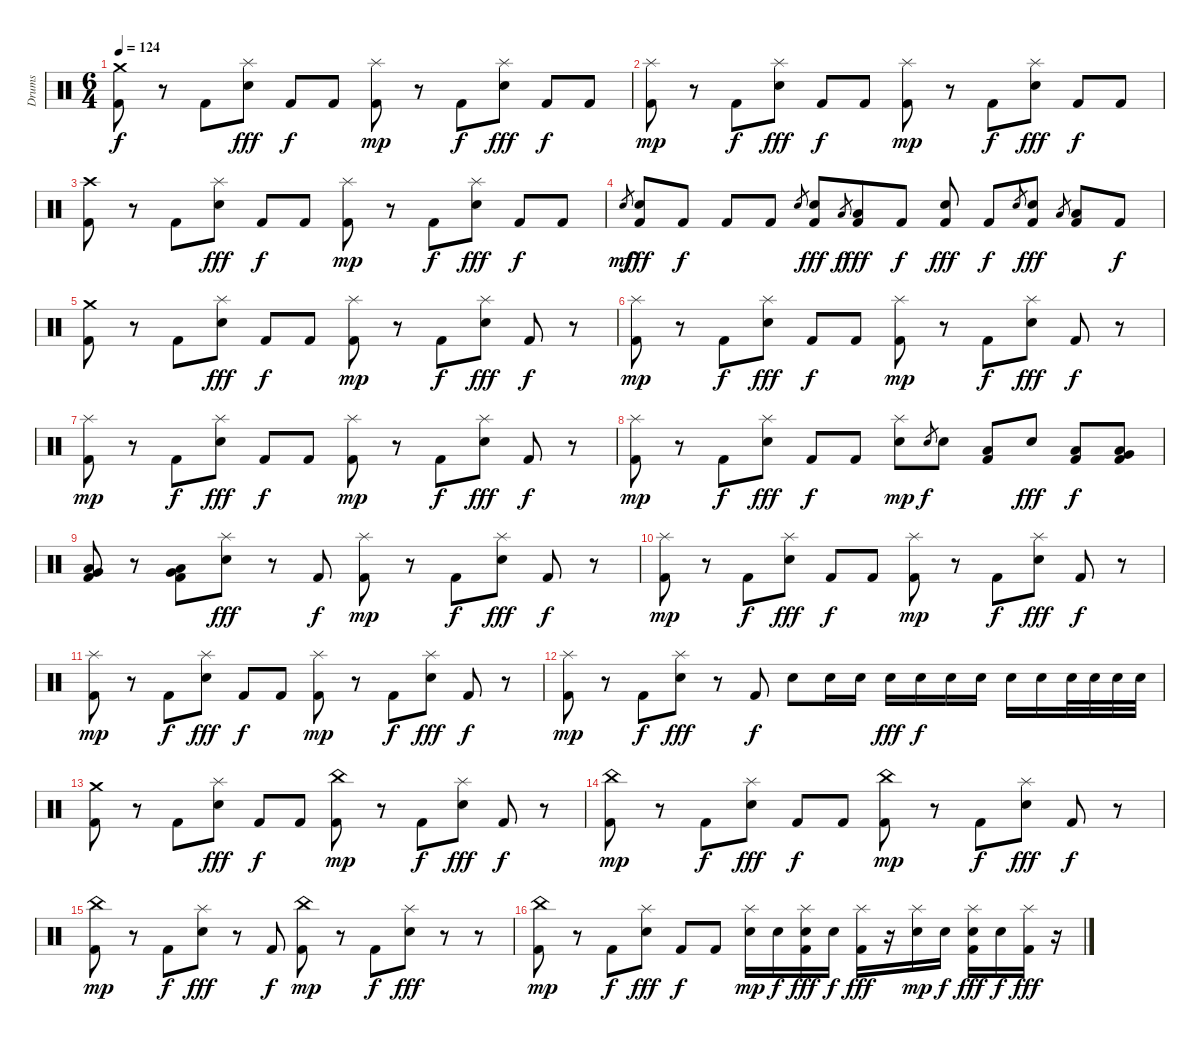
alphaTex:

\track ("Drums" "Drums") {instrument percussion}
\staff {score}
\articulation defaults
\ts (6 4)
\tempo 124
\clef neutral
\ks c
("Crash medium (hit)" "Kick (hit) 2").8{dy f} r.8 "Kick (hit) 2".8 ("Splash (hit)" "Electric Snare (hit)").8{dy fff} "Kick (hit) 2".8{dy f} "Kick (hit) 2".8 ("Splash (hit)" "Kick (hit) 2").8{dy mp} r.8 "Kick (hit) 2".8{dy f} ("Splash (hit)" "Electric Snare (hit)").8{dy fff} "Kick (hit) 2".8{dy f} "Kick (hit) 2".8 |
("Splash (hit)" "Kick (hit) 2").8{dy mp} r.8 "Kick (hit) 2".8{dy f} ("Splash (hit)" "Electric Snare (hit)").8{dy fff} "Kick (hit) 2".8{dy f} "Kick (hit) 2".8 ("Splash (hit)" "Kick (hit) 2").8{dy mp} r.8 "Kick (hit) 2".8{dy f} ("Splash (hit)" "Electric Snare (hit)").8{dy fff} "Kick (hit) 2".8{dy f} "Kick (hit) 2".8 |
("Crash high (hit)" "Kick (hit) 2").8 r.8 "Kick (hit) 2".8 ("Splash (hit)" "Electric Snare (hit)").8{dy fff} "Kick (hit) 2".8{dy f} "Kick (hit) 2".8 ("Splash (hit)" "Kick (hit) 2").8{dy mp} r.8 "Kick (hit) 2".8{dy f} ("Splash (hit)" "Electric Snare (hit)").8{dy fff} "Kick (hit) 2".8{dy f} "Kick (hit) 2".8 |
"Electric Snare (hit)".8{gr dy mf} ("Electric Snare (hit)" "Kick (hit) 2").8{dy fff} "Kick (hit) 2".8{dy f} "Kick (hit) 2".8 "Kick (hit) 2".8 "Electric Snare (hit)".8{gr beam split} ("Electric Snare (hit)" "Kick (hit) 2").8{dy fff} "Low Floor Tom (hit)".8{gr dy f} ("Low Floor Tom (hit)" "Kick (hit) 2").8{dy fff beam merge} "Kick (hit) 2".8{dy f beam split} ("Electric Snare (hit)" "Kick (hit) 2").8{dy fff} "Kick (hit) 2".8{dy f} "Electric Snare (hit)".8{gr beam split} ("Electric Snare (hit)" "Kick (hit) 2").8{dy fff} "Low Floor Tom (hit)".8{gr} ("Low Floor Tom (hit)" "Kick (hit) 2").8 "Kick (hit) 2".8{dy f} |
("Crash medium (hit)" "Kick (hit) 2").8 r.8 "Kick (hit) 2".8 ("Splash (hit)" "Electric Snare (hit)").8{dy fff} "Kick (hit) 2".8{dy f} "Kick (hit) 2".8 ("Splash (hit)" "Kick (hit) 2").8{dy mp} r.8 "Kick (hit) 2".8{dy f} ("Splash (hit)" "Electric Snare (hit)").8{dy fff} "Kick (hit) 2".8{dy f} r.8 |
("Splash (hit)" "Kick (hit) 2").8{dy mp} r.8 "Kick (hit) 2".8{dy f} ("Splash (hit)" "Electric Snare (hit)").8{dy fff} "Kick (hit) 2".8{dy f} "Kick (hit) 2".8 ("Splash (hit)" "Kick (hit) 2").8{dy mp} r.8 "Kick (hit) 2".8{dy f} ("Splash (hit)" "Electric Snare (hit)").8{dy fff} "Kick (hit) 2".8{dy f} r.8 |
("Splash (hit)" "Kick (hit) 2").8{dy mp} r.8 "Kick (hit) 2".8{dy f} ("Splash (hit)" "Electric Snare (hit)").8{dy fff} "Kick (hit) 2".8{dy f} "Kick (hit) 2".8 ("Splash (hit)" "Kick (hit) 2").8{dy mp} r.8 "Kick (hit) 2".8{dy f} ("Splash (hit)" "Electric Snare (hit)").8{dy fff} "Kick (hit) 2".8{dy f} r.8 |
("Splash (hit)" "Kick (hit) 2").8{dy mp} r.8 "Kick (hit) 2".8{dy f} ("Splash (hit)" "Electric Snare (hit)").8{dy fff} "Kick (hit) 2".8{dy f} "Kick (hit) 2".8 ("Splash (hit)" "Electric Snare (hit)").8{dy mp} "Electric Snare (hit)".8{gr dy f} "Electric Snare (hit)".8 ("Low Tom (hit)" "Kick (hit) 2").8 "Electric Snare (hit)".8{dy fff} ("Low Tom (hit)" "Kick (hit) 2").8{dy f} ("Very Low Tom (hit)" "Low Floor Tom (hit)" "Kick (hit) 2").8 |
("Very Low Tom (hit)" "Low Floor Tom (hit)" "Kick (hit) 2").8 r.8 ("Very Low Tom (hit)" "Low Floor Tom (hit)" "Kick (hit) 2").8 ("Splash (hit)" "Electric Snare (hit)").8{dy fff} r.8 "Kick (hit) 2".8{dy f} ("Splash (hit)" "Kick (hit) 2").8{dy mp} r.8 "Kick (hit) 2".8{dy f} ("Splash (hit)" "Electric Snare (hit)").8{dy fff} "Kick (hit) 2".8{dy f} r.8 |
("Splash (hit)" "Kick (hit) 2").8{dy mp} r.8 "Kick (hit) 2".8{dy f} ("Splash (hit)" "Electric Snare (hit)").8{dy fff} "Kick (hit) 2".8{dy f} "Kick (hit) 2".8 ("Splash (hit)" "Kick (hit) 2").8{dy mp} r.8 "Kick (hit) 2".8{dy f} ("Splash (hit)" "Electric Snare (hit)").8{dy fff} "Kick (hit) 2".8{dy f} r.8 |
("Splash (hit)" "Kick (hit) 2").8{dy mp} r.8 "Kick (hit) 2".8{dy f} ("Splash (hit)" "Electric Snare (hit)").8{dy fff} "Kick (hit) 2".8{dy f} "Kick (hit) 2".8 ("Splash (hit)" "Kick (hit) 2").8{dy mp} r.8 "Kick (hit) 2".8{dy f} ("Splash (hit)" "Electric Snare (hit)").8{dy fff} "Kick (hit) 2".8{dy f} r.8 |
("Splash (hit)" "Kick (hit) 2").8{dy mp} r.8 "Kick (hit) 2".8{dy f} ("Splash (hit)" "Electric Snare (hit)").8{dy fff} r.8 "Kick (hit) 2".8{dy f} "Electric Snare (hit)".8 "Electric Snare (hit)".16 "Electric Snare (hit)".16 "Electric Snare (hit)".16{dy fff} "Electric Snare (hit)".16{dy f} "Electric Snare (hit)".16 "Electric Snare (hit)".16 "Electric Snare (hit)".16 "Electric Snare (hit)".16 "Electric Snare (hit)".32 "Electric Snare (hit)".32 "Electric Snare (hit)".32 "Electric Snare (hit)".32 |
("Crash medium (hit)" "Kick (hit) 2").8 r.8 "Kick (hit) 2".8 ("Splash (hit)" "Electric Snare (hit)").8{dy fff} "Kick (hit) 2".8{dy f} "Kick (hit) 2".8 ("China (hit)" "Kick (hit) 2").8{dy mp} r.8 "Kick (hit) 2".8{dy f} ("Splash (hit)" "Electric Snare (hit)").8{dy fff} "Kick (hit) 2".8{dy f} r.8 |
("China (hit)" "Kick (hit) 2").8{dy mp} r.8 "Kick (hit) 2".8{dy f} ("Splash (hit)" "Electric Snare (hit)").8{dy fff} "Kick (hit) 2".8{dy f} "Kick (hit) 2".8 ("China (hit)" "Kick (hit) 2").8{dy mp} r.8 "Kick (hit) 2".8{dy f} ("Splash (hit)" "Electric Snare (hit)").8{dy fff} "Kick (hit) 2".8{dy f} r.8 |
("China (hit)" "Kick (hit) 2").8{dy mp} r.8 "Kick (hit) 2".8{dy f} ("Splash (hit)" "Electric Snare (hit)").8{dy fff} r.8 "Kick (hit) 2".8{dy f} ("China (hit)" "Kick (hit) 2").8{dy mp} r.8 "Kick (hit) 2".8{dy f} ("Splash (hit)" "Electric Snare (hit)").8{dy fff} r.8 r.8 |
("China (hit)" "Kick (hit) 2").8{dy mp} r.8 "Kick (hit) 2".8{dy f} ("Splash (hit)" "Electric Snare (hit)").8{dy fff} "Kick (hit) 2".8{dy f} "Kick (hit) 2".8 ("Splash (hit)" "Electric Snare (hit)").16{dy mp} "Electric Snare (hit)".16{dy f} ("Splash (hit)" "Electric Snare (hit)" "Kick (hit) 2").16{dy fff} "Electric Snare (hit)".16{dy f} ("Splash (hit)" "Kick (hit) 2").16{dy fff} r.16 ("Splash (hit)" "Electric Snare (hit)").16{dy mp} "Electric Snare (hit)".16{dy f} ("Splash (hit)" "Electric Snare (hit)" "Kick (hit) 2").16{dy fff} "Electric Snare (hit)".16{dy f} ("Splash (hit)" "Kick (hit) 2").16{dy fff} r.16
